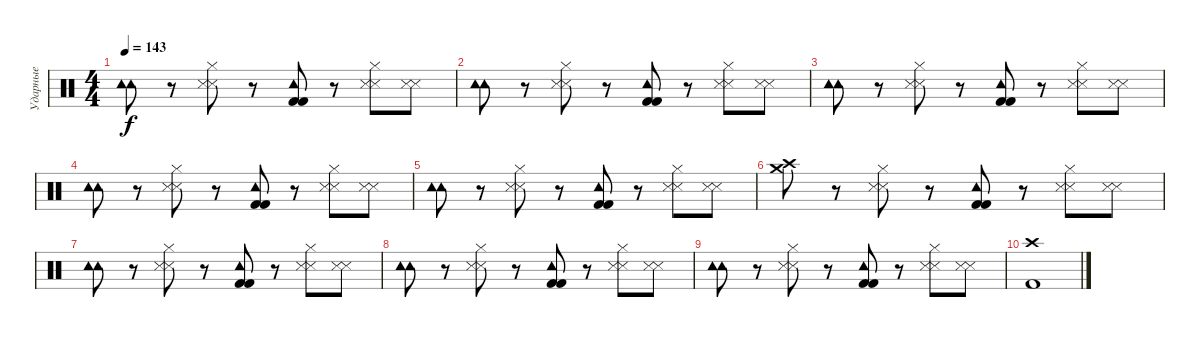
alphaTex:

\track ("Ударные" "Ударные") {instrument percussion}
\staff {score}
\articulation defaults
\ts (4 4)
\tempo 143
\clef neutral
\ks c
("Tambourine (hit)" "Tambourine (hit)").8{dy f} r.8 ("Hi-Hat (closed)" "Metronome (hit)" "Metronome (hit)").8 r.8 ("Tambourine (hit)" "Kick (hit) 2" "Kick (hit) 2").8 r.8 ("Hi-Hat (closed)" "Metronome (hit)" "Metronome (hit)").8 ("Metronome (hit)" "Metronome (hit)").8 |
("Tambourine (hit)" "Tambourine (hit)").8 r.8 ("Hi-Hat (closed)" "Metronome (hit)" "Metronome (hit)").8 r.8 ("Tambourine (hit)" "Kick (hit) 2" "Kick (hit) 2").8 r.8 ("Hi-Hat (closed)" "Metronome (hit)" "Metronome (hit)").8 ("Metronome (hit)" "Metronome (hit)").8 |
("Tambourine (hit)" "Tambourine (hit)").8 r.8 ("Hi-Hat (closed)" "Metronome (hit)" "Metronome (hit)").8 r.8 ("Tambourine (hit)" "Kick (hit) 2" "Kick (hit) 2").8 r.8 ("Hi-Hat (closed)" "Metronome (hit)" "Metronome (hit)").8 ("Metronome (hit)" "Metronome (hit)").8 |
("Tambourine (hit)" "Tambourine (hit)").8 r.8 ("Hi-Hat (closed)" "Metronome (hit)" "Metronome (hit)").8 r.8 ("Tambourine (hit)" "Kick (hit) 2" "Kick (hit) 2").8 r.8 ("Hi-Hat (closed)" "Metronome (hit)" "Metronome (hit)").8 ("Metronome (hit)" "Metronome (hit)").8 |
("Tambourine (hit)" "Tambourine (hit)").8 r.8 ("Hi-Hat (closed)" "Metronome (hit)" "Metronome (hit)").8 r.8 ("Tambourine (hit)" "Kick (hit) 2" "Kick (hit) 2").8 r.8 ("Hi-Hat (closed)" "Metronome (hit)" "Metronome (hit)").8 ("Metronome (hit)" "Metronome (hit)").8 |
("Crash medium (hit)" "Crash high (hit)").8 r.8 ("Hi-Hat (closed)" "Metronome (hit)" "Metronome (hit)").8 r.8 ("Tambourine (hit)" "Kick (hit) 2" "Kick (hit) 2").8 r.8 ("Hi-Hat (closed)" "Metronome (hit)" "Metronome (hit)").8 ("Metronome (hit)" "Metronome (hit)").8 |
("Tambourine (hit)" "Tambourine (hit)").8 r.8 ("Hi-Hat (closed)" "Metronome (hit)" "Metronome (hit)").8 r.8 ("Tambourine (hit)" "Kick (hit) 2" "Kick (hit) 2").8 r.8 ("Hi-Hat (closed)" "Metronome (hit)" "Metronome (hit)").8 ("Metronome (hit)" "Metronome (hit)").8 |
("Tambourine (hit)" "Tambourine (hit)").8 r.8 ("Hi-Hat (closed)" "Metronome (hit)" "Metronome (hit)").8 r.8 ("Tambourine (hit)" "Kick (hit) 2" "Kick (hit) 2").8 r.8 ("Hi-Hat (closed)" "Metronome (hit)" "Metronome (hit)").8 ("Metronome (hit)" "Metronome (hit)").8 |
("Tambourine (hit)" "Tambourine (hit)").8 r.8 ("Hi-Hat (closed)" "Metronome (hit)" "Metronome (hit)").8 r.8 ("Tambourine (hit)" "Kick (hit) 2" "Kick (hit) 2").8 r.8 ("Hi-Hat (closed)" "Metronome (hit)" "Metronome (hit)").8 ("Metronome (hit)" "Metronome (hit)").8 |
("Crash high (hit)" "Kick (hit) 2").1
